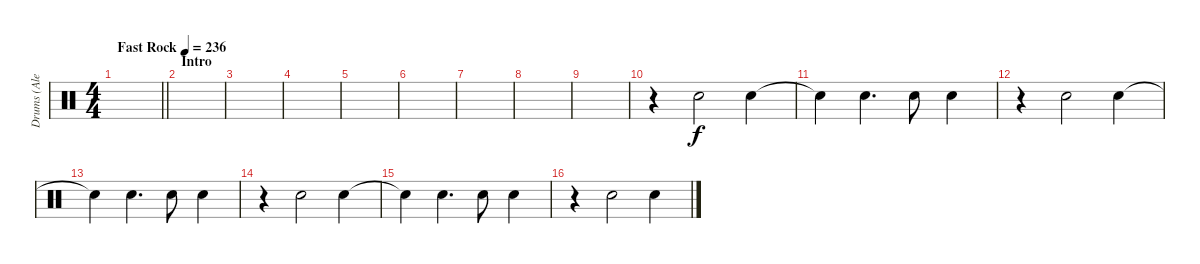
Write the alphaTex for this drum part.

\track ("Drums (Alex Van Halen)" "Drums (Ale") {instrument percussion}
\staff {score}
\articulation defaults
\ts (4 4)
\tempo (236 "Fast Rock")
\clef neutral
\barLineRight lightlight
\ks c
|
\section ("" "Intro")
|
|
|
|
|
|
|
|
r.4 "Snare (hit) 2".2 "Snare (hit) 2".4 |
"Electric Snare (hit)"{t}.4 "Snare (hit) 2".4{d} "Snare (hit) 2".8 "Snare (hit) 2".4 |
r.4 "Snare (hit) 2".2 "Snare (hit) 2".4 |
"Electric Snare (hit)"{t}.4 "Snare (hit) 2".4{d} "Snare (hit) 2".8 "Snare (hit) 2".4 |
r.4 "Snare (hit) 2".2 "Snare (hit) 2".4 |
"Electric Snare (hit)"{t}.4 "Snare (hit) 2".4{d} "Snare (hit) 2".8 "Snare (hit) 2".4 |
r.4 "Snare (hit) 2".2 "Snare (hit) 2".4
